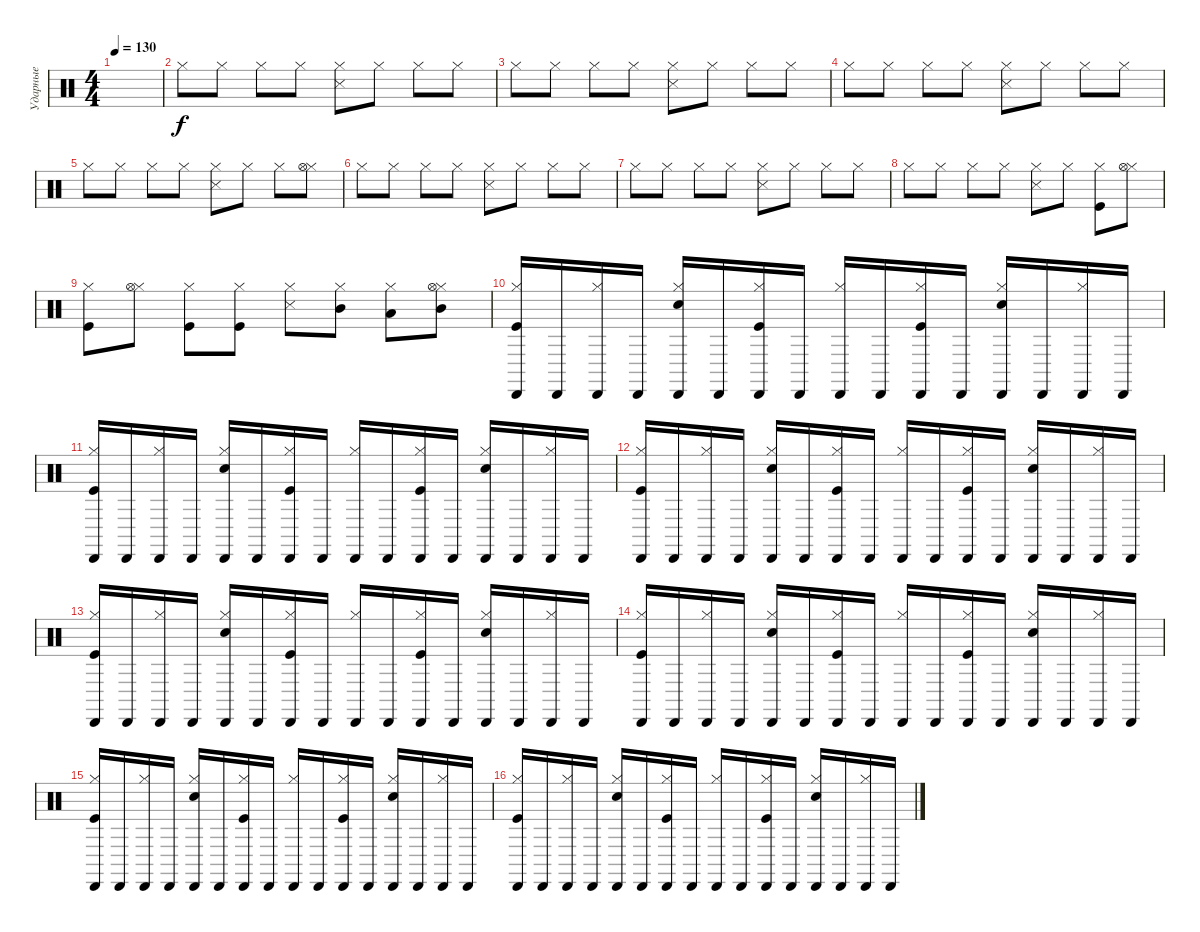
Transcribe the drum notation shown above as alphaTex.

\track ("Ударные" "Ударные") {instrument percussion}
\staff {score}
\articulation defaults
\ts (4 4)
\tempo 130
\clef neutral
\ks c
|
"Hi-Hat (closed)".8 "Hi-Hat (closed)".8 "Hi-Hat (closed)".8 "Hi-Hat (closed)".8 ("Hi-Hat (closed)" "Snare (side stick) 3").8 "Hi-Hat (closed)".8 "Hi-Hat (closed)".8 "Hi-Hat (closed)".8 |
"Hi-Hat (closed)".8 "Hi-Hat (closed)".8 "Hi-Hat (closed)".8 "Hi-Hat (closed)".8 ("Hi-Hat (closed)" "Snare (side stick) 3").8 "Hi-Hat (closed)".8 "Hi-Hat (closed)".8 "Hi-Hat (closed)".8 |
"Hi-Hat (closed)".8 "Hi-Hat (closed)".8 "Hi-Hat (closed)".8 "Hi-Hat (closed)".8 ("Hi-Hat (closed)" "Snare (side stick) 3").8 "Hi-Hat (closed)".8 "Hi-Hat (closed)".8 "Hi-Hat (closed)".8 |
"Hi-Hat (closed)".8 "Hi-Hat (closed)".8 "Hi-Hat (closed)".8 "Hi-Hat (closed)".8 ("Hi-Hat (closed)" "Snare (side stick) 3").8 "Hi-Hat (closed)".8 "Hi-Hat (closed)".8 ("Hi-Hat (closed)" "Hi-Hat (open)").8 |
"Hi-Hat (closed)".8 "Hi-Hat (closed)".8 "Hi-Hat (closed)".8 "Hi-Hat (closed)".8 ("Hi-Hat (closed)" "Snare (side stick) 3").8 "Hi-Hat (closed)".8 "Hi-Hat (closed)".8 "Hi-Hat (closed)".8 |
"Hi-Hat (closed)".8 "Hi-Hat (closed)".8 "Hi-Hat (closed)".8 "Hi-Hat (closed)".8 ("Hi-Hat (closed)" "Snare (side stick) 3").8 "Hi-Hat (closed)".8 "Hi-Hat (closed)".8 "Hi-Hat (closed)".8 |
"Hi-Hat (closed)".8 "Hi-Hat (closed)".8 "Hi-Hat (closed)".8 "Hi-Hat (closed)".8 ("Hi-Hat (closed)" "Snare (side stick) 3").8 "Hi-Hat (closed)".8 ("Hi-Hat (closed)" "Kick (hit)").8 ("Hi-Hat (closed)" "Hi-Hat (open)").8 |
("Hi-Hat (closed)" "Kick (hit)").8 ("Hi-Hat (closed)" "Hi-Hat (open)").8 ("Hi-Hat (closed)" "Kick (hit)").8 ("Hi-Hat (closed)" "Kick (hit)").8 ("Hi-Hat (closed)" "Snare (side stick) 3").8 ("Hi-Hat (closed)" "Mid Tom (hit)").8 ("Hi-Hat (closed)" "Low Tom (hit)").8 ("Hi-Hat (closed)" "Hi-Hat (open)" "Mid Tom (hit)").8 |
("Cabasa (hit)" "Hi-Hat (closed)" "Kick (hit)").16 "Cabasa (hit)".16 ("Cabasa (hit)" "Hi-Hat (closed)").16 "Cabasa (hit)".16 ("Cabasa (hit)" "Hi-Hat (closed)" "Electric Snare (hit)").16 "Cabasa (hit)".16 ("Cabasa (hit)" "Hi-Hat (closed)" "Kick (hit)").16 "Cabasa (hit)".16 ("Cabasa (hit)" "Hi-Hat (closed)").16 "Cabasa (hit)".16 ("Cabasa (hit)" "Hi-Hat (closed)" "Kick (hit)").16 "Cabasa (hit)".16 ("Cabasa (hit)" "Hi-Hat (closed)" "Electric Snare (hit)").16 "Cabasa (hit)".16 ("Cabasa (hit)" "Hi-Hat (closed)").16 "Cabasa (hit)".16 |
("Cabasa (hit)" "Hi-Hat (closed)" "Kick (hit)").16 "Cabasa (hit)".16 ("Cabasa (hit)" "Hi-Hat (closed)").16 "Cabasa (hit)".16 ("Cabasa (hit)" "Hi-Hat (closed)" "Electric Snare (hit)").16 "Cabasa (hit)".16 ("Cabasa (hit)" "Hi-Hat (closed)" "Kick (hit)").16 "Cabasa (hit)".16 ("Cabasa (hit)" "Hi-Hat (closed)").16 "Cabasa (hit)".16 ("Cabasa (hit)" "Hi-Hat (closed)" "Kick (hit)").16 "Cabasa (hit)".16 ("Cabasa (hit)" "Hi-Hat (closed)" "Electric Snare (hit)").16 "Cabasa (hit)".16 ("Cabasa (hit)" "Hi-Hat (closed)").16 "Cabasa (hit)".16 |
("Cabasa (hit)" "Hi-Hat (closed)" "Kick (hit)").16 "Cabasa (hit)".16 ("Cabasa (hit)" "Hi-Hat (closed)").16 "Cabasa (hit)".16 ("Cabasa (hit)" "Hi-Hat (closed)" "Electric Snare (hit)").16 "Cabasa (hit)".16 ("Cabasa (hit)" "Hi-Hat (closed)" "Kick (hit)").16 "Cabasa (hit)".16 ("Cabasa (hit)" "Hi-Hat (closed)").16 "Cabasa (hit)".16 ("Cabasa (hit)" "Hi-Hat (closed)" "Kick (hit)").16 "Cabasa (hit)".16 ("Cabasa (hit)" "Hi-Hat (closed)" "Electric Snare (hit)").16 "Cabasa (hit)".16 ("Cabasa (hit)" "Hi-Hat (closed)").16 "Cabasa (hit)".16 |
("Cabasa (hit)" "Hi-Hat (closed)" "Kick (hit)").16 "Cabasa (hit)".16 ("Cabasa (hit)" "Hi-Hat (closed)").16 "Cabasa (hit)".16 ("Cabasa (hit)" "Hi-Hat (closed)" "Electric Snare (hit)").16 "Cabasa (hit)".16 ("Cabasa (hit)" "Hi-Hat (closed)" "Kick (hit)").16 "Cabasa (hit)".16 ("Cabasa (hit)" "Hi-Hat (closed)").16 "Cabasa (hit)".16 ("Cabasa (hit)" "Hi-Hat (closed)" "Kick (hit)").16 "Cabasa (hit)".16 ("Cabasa (hit)" "Hi-Hat (closed)" "Electric Snare (hit)").16 "Cabasa (hit)".16 ("Cabasa (hit)" "Hi-Hat (closed)").16 "Cabasa (hit)".16 |
("Cabasa (hit)" "Hi-Hat (closed)" "Kick (hit)").16 "Cabasa (hit)".16 ("Cabasa (hit)" "Hi-Hat (closed)").16 "Cabasa (hit)".16 ("Cabasa (hit)" "Hi-Hat (closed)" "Electric Snare (hit)").16 "Cabasa (hit)".16 ("Cabasa (hit)" "Hi-Hat (closed)" "Kick (hit)").16 "Cabasa (hit)".16 ("Cabasa (hit)" "Hi-Hat (closed)").16 "Cabasa (hit)".16 ("Cabasa (hit)" "Hi-Hat (closed)" "Kick (hit)").16 "Cabasa (hit)".16 ("Cabasa (hit)" "Hi-Hat (closed)" "Electric Snare (hit)").16 "Cabasa (hit)".16 ("Cabasa (hit)" "Hi-Hat (closed)").16 "Cabasa (hit)".16 |
("Cabasa (hit)" "Hi-Hat (closed)" "Kick (hit)").16 "Cabasa (hit)".16 ("Cabasa (hit)" "Hi-Hat (closed)").16 "Cabasa (hit)".16 ("Cabasa (hit)" "Hi-Hat (closed)" "Electric Snare (hit)").16 "Cabasa (hit)".16 ("Cabasa (hit)" "Hi-Hat (closed)" "Kick (hit)").16 "Cabasa (hit)".16 ("Cabasa (hit)" "Hi-Hat (closed)").16 "Cabasa (hit)".16 ("Cabasa (hit)" "Hi-Hat (closed)" "Kick (hit)").16 "Cabasa (hit)".16 ("Cabasa (hit)" "Hi-Hat (closed)" "Electric Snare (hit)").16 "Cabasa (hit)".16 ("Cabasa (hit)" "Hi-Hat (closed)").16 "Cabasa (hit)".16 |
("Cabasa (hit)" "Hi-Hat (closed)" "Kick (hit)").16 "Cabasa (hit)".16 ("Cabasa (hit)" "Hi-Hat (closed)").16 "Cabasa (hit)".16 ("Cabasa (hit)" "Hi-Hat (closed)" "Electric Snare (hit)").16 "Cabasa (hit)".16 ("Cabasa (hit)" "Hi-Hat (closed)" "Kick (hit)").16 "Cabasa (hit)".16 ("Cabasa (hit)" "Hi-Hat (closed)").16 "Cabasa (hit)".16 ("Cabasa (hit)" "Hi-Hat (closed)" "Kick (hit)").16 "Cabasa (hit)".16 ("Cabasa (hit)" "Hi-Hat (closed)" "Electric Snare (hit)").16 "Cabasa (hit)".16 ("Cabasa (hit)" "Hi-Hat (closed)").16 "Cabasa (hit)".16
